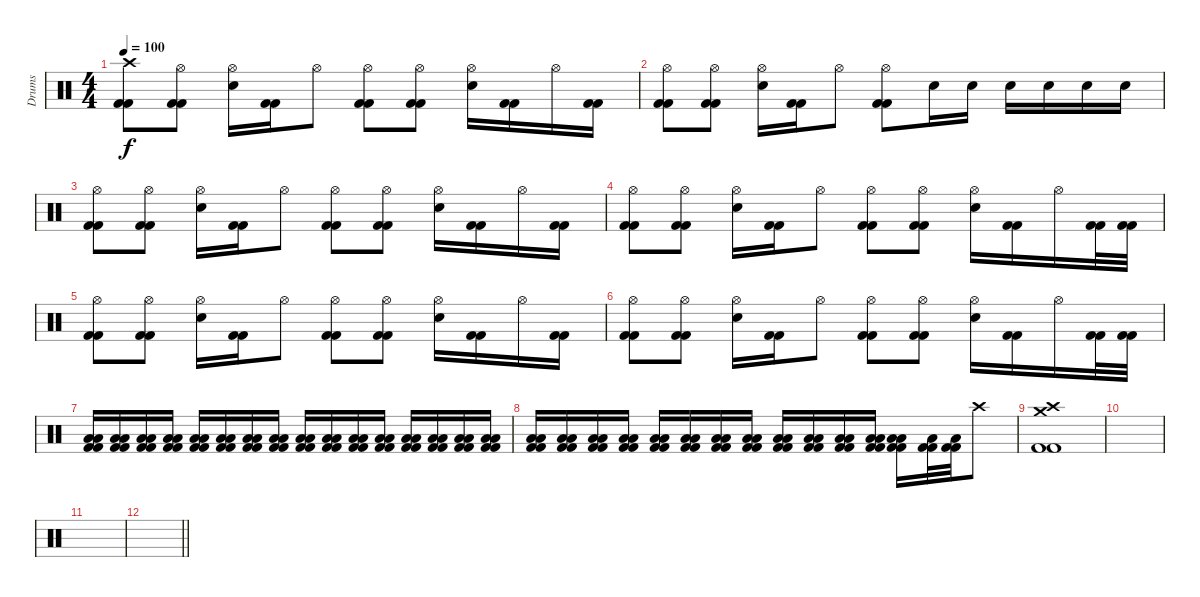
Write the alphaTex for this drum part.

\track ("Drums" "Drums") {instrument percussion}
\staff {score}
\articulation defaults
\ts (4 4)
\tempo 100
\clef neutral
\ks c
("Crash high (hit)" "Kick (hit) 2" "Kick (hit) 2").8{dy f} ("Hi-Hat (open)" "Kick (hit) 2" "Kick (hit) 2").8 ("Hi-Hat (open)" "Electric Snare (hit)").16 ("Kick (hit) 2" "Kick (hit) 2").16 "Hi-Hat (open)".8 ("Hi-Hat (open)" "Kick (hit) 2" "Kick (hit) 2").8 ("Hi-Hat (open)" "Kick (hit) 2" "Kick (hit) 2").8 ("Hi-Hat (open)" "Electric Snare (hit)").16 ("Kick (hit) 2" "Kick (hit) 2").16 "Hi-Hat (open)".16 ("Kick (hit) 2" "Kick (hit) 2").16 |
("Hi-Hat (open)" "Kick (hit) 2" "Kick (hit) 2").8 ("Hi-Hat (open)" "Kick (hit) 2" "Kick (hit) 2").8 ("Hi-Hat (open)" "Electric Snare (hit)").16 ("Kick (hit) 2" "Kick (hit) 2").16 "Hi-Hat (open)".8 ("Hi-Hat (open)" "Kick (hit) 2" "Kick (hit) 2").8 "Electric Snare (hit)".16 "Electric Snare (hit)".16 "Electric Snare (hit)".16 "Electric Snare (hit)".16 "Electric Snare (hit)".16 "Electric Snare (hit)".16 |
("Hi-Hat (open)" "Kick (hit) 2" "Kick (hit) 2").8 ("Hi-Hat (open)" "Kick (hit) 2" "Kick (hit) 2").8 ("Hi-Hat (open)" "Electric Snare (hit)").16 ("Kick (hit) 2" "Kick (hit) 2").16 "Hi-Hat (open)".8 ("Hi-Hat (open)" "Kick (hit) 2" "Kick (hit) 2").8 ("Hi-Hat (open)" "Kick (hit) 2" "Kick (hit) 2").8 ("Hi-Hat (open)" "Electric Snare (hit)").16 ("Kick (hit) 2" "Kick (hit) 2").16 "Hi-Hat (open)".16 ("Kick (hit) 2" "Kick (hit) 2").16 |
("Hi-Hat (open)" "Kick (hit) 2" "Kick (hit) 2").8 ("Hi-Hat (open)" "Kick (hit) 2" "Kick (hit) 2").8 ("Hi-Hat (open)" "Electric Snare (hit)").16 ("Kick (hit) 2" "Kick (hit) 2").16 "Hi-Hat (open)".8 ("Hi-Hat (open)" "Kick (hit) 2" "Kick (hit) 2").8 ("Hi-Hat (open)" "Kick (hit) 2" "Kick (hit) 2").8 ("Hi-Hat (open)" "Electric Snare (hit)").16 ("Kick (hit) 2" "Kick (hit) 2").16 "Hi-Hat (open)".16 ("Kick (hit) 2" "Kick (hit) 2").32 ("Kick (hit) 2" "Kick (hit) 2").32 |
("Hi-Hat (open)" "Kick (hit) 2" "Kick (hit) 2").8 ("Hi-Hat (open)" "Kick (hit) 2" "Kick (hit) 2").8 ("Hi-Hat (open)" "Electric Snare (hit)").16 ("Kick (hit) 2" "Kick (hit) 2").16 "Hi-Hat (open)".8 ("Hi-Hat (open)" "Kick (hit) 2" "Kick (hit) 2").8 ("Hi-Hat (open)" "Kick (hit) 2" "Kick (hit) 2").8 ("Hi-Hat (open)" "Electric Snare (hit)").16 ("Kick (hit) 2" "Kick (hit) 2").16 "Hi-Hat (open)".16 ("Kick (hit) 2" "Kick (hit) 2").16 |
("Hi-Hat (open)" "Kick (hit) 2" "Kick (hit) 2").8 ("Hi-Hat (open)" "Kick (hit) 2" "Kick (hit) 2").8 ("Hi-Hat (open)" "Electric Snare (hit)").16 ("Kick (hit) 2" "Kick (hit) 2").16 "Hi-Hat (open)".8 ("Hi-Hat (open)" "Kick (hit) 2" "Kick (hit) 2").8 ("Hi-Hat (open)" "Kick (hit) 2" "Kick (hit) 2").8 ("Hi-Hat (open)" "Electric Snare (hit)").16 ("Kick (hit) 2" "Kick (hit) 2").16 "Hi-Hat (open)".16 ("Kick (hit) 2" "Kick (hit) 2").32 ("Kick (hit) 2" "Kick (hit) 2").32 |
("Low Floor Tom (hit)" "Low Tom (hit)" "Kick (hit) 2" "Kick (hit) 2").16 ("Low Floor Tom (hit)" "Low Tom (hit)" "Kick (hit) 2" "Kick (hit) 2").16 ("Low Floor Tom (hit)" "Low Tom (hit)" "Kick (hit) 2" "Kick (hit) 2").16 ("Low Floor Tom (hit)" "Low Tom (hit)" "Kick (hit) 2" "Kick (hit) 2").16 ("Low Floor Tom (hit)" "Low Tom (hit)" "Kick (hit) 2" "Kick (hit) 2").16 ("Low Floor Tom (hit)" "Low Tom (hit)" "Kick (hit) 2" "Kick (hit) 2").16 ("Low Floor Tom (hit)" "Low Tom (hit)" "Kick (hit) 2" "Kick (hit) 2").16 ("Low Floor Tom (hit)" "Low Tom (hit)" "Kick (hit) 2" "Kick (hit) 2").16 ("Low Floor Tom (hit)" "Low Tom (hit)" "Kick (hit) 2" "Kick (hit) 2").16 ("Low Floor Tom (hit)" "Low Tom (hit)" "Kick (hit) 2" "Kick (hit) 2").16 ("Low Floor Tom (hit)" "Low Tom (hit)" "Kick (hit) 2" "Kick (hit) 2").16 ("Low Floor Tom (hit)" "Low Tom (hit)" "Kick (hit) 2" "Kick (hit) 2").16 ("Low Floor Tom (hit)" "Low Tom (hit)" "Kick (hit) 2" "Kick (hit) 2").16 ("Low Floor Tom (hit)" "Low Tom (hit)" "Kick (hit) 2" "Kick (hit) 2").16 ("Low Floor Tom (hit)" "Low Tom (hit)" "Kick (hit) 2" "Kick (hit) 2").16 ("Low Floor Tom (hit)" "Low Tom (hit)" "Kick (hit) 2" "Kick (hit) 2").16 |
("Low Floor Tom (hit)" "Low Tom (hit)" "Kick (hit) 2" "Kick (hit) 2").16 ("Low Floor Tom (hit)" "Low Tom (hit)" "Kick (hit) 2" "Kick (hit) 2").16 ("Low Floor Tom (hit)" "Low Tom (hit)" "Kick (hit) 2" "Kick (hit) 2").16 ("Low Floor Tom (hit)" "Low Tom (hit)" "Kick (hit) 2" "Kick (hit) 2").16 ("Low Floor Tom (hit)" "Low Tom (hit)" "Kick (hit) 2" "Kick (hit) 2").16 ("Low Floor Tom (hit)" "Low Tom (hit)" "Kick (hit) 2" "Kick (hit) 2").16 ("Low Floor Tom (hit)" "Low Tom (hit)" "Kick (hit) 2" "Kick (hit) 2").16 ("Low Floor Tom (hit)" "Low Tom (hit)" "Kick (hit) 2" "Kick (hit) 2").16 ("Low Floor Tom (hit)" "Low Tom (hit)" "Kick (hit) 2" "Kick (hit) 2").16 ("Low Floor Tom (hit)" "Low Tom (hit)" "Kick (hit) 2" "Kick (hit) 2").16 ("Low Floor Tom (hit)" "Low Tom (hit)" "Kick (hit) 2" "Kick (hit) 2").16 ("Low Floor Tom (hit)" "Low Tom (hit)" "Kick (hit) 2" "Kick (hit) 2").16 ("Low Floor Tom (hit)" "Low Tom (hit)" "Kick (hit) 2" "Kick (hit) 2").16 ("Low Tom (hit)" "Kick (hit) 2" "Kick (hit) 2").32 ("Low Tom (hit)" "Kick (hit) 2" "Kick (hit) 2").32 "Crash high (hit)".8 |
("Crash medium (hit)" "Crash high (hit)" "Kick (hit) 2" "Kick (hit) 2").1 |
|
|
\barLineRight lightlight
